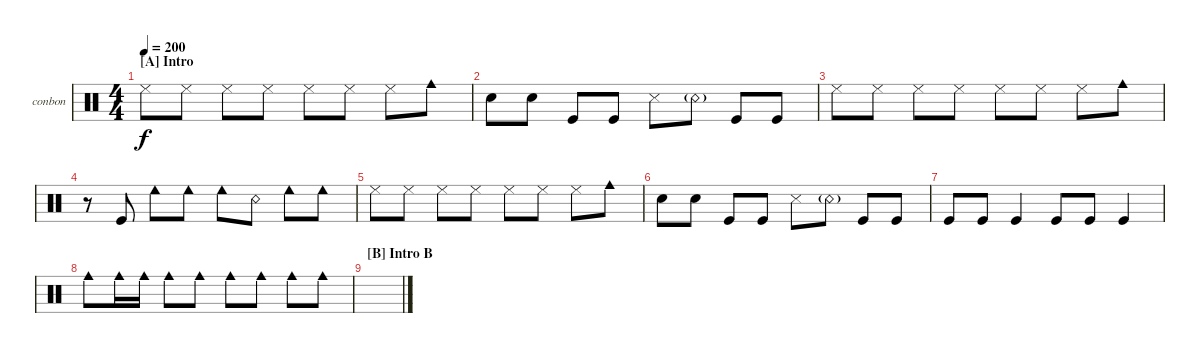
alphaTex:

\defaultSystemsLayout 4
\bracketExtendMode groupsimilarinstruments
\firstSystemTrackNameOrientation horizontal
\otherSystemsTrackNameOrientation horizontal
\track ("Bongos N Congas" "conbon") {instrument percussion}
\staff {score}
\articulation defaults
\ts (4 4)
\section ("A" "Intro")
\tempo 200
\clef neutral
\scale
0.472222
\ks c "Cowbell low (tip)".8{dy f} "Cowbell low (tip)".8 "Cowbell low (tip)".8 "Cowbell low (tip)".8 "Cowbell low (tip)".8 "Cowbell low (tip)".8 "Cowbell low (tip)".8 "Cowbell medium (hit)".8
|
\scale
0.263889 "Snare (hit) 2".8 "Snare (hit) 2".8 "Kick (hit)".8 "Kick (hit)".8 "Snare (side stick) 3".8 "Snare (rim shot)"{g}.8 "Kick (hit)".8 "Kick (hit)".8 |
\scale
0.263889 "Cowbell low (tip)".8 "Cowbell low (tip)".8 "Cowbell low (tip)".8 "Cowbell low (tip)".8 "Cowbell low (tip)".8 "Cowbell low (tip)".8 "Cowbell low (tip)".8 "Cowbell medium (hit)".8 |
\scale
0.333333 r.8 "Kick (hit)".8 "Cowbell low (hit)".8 "Cowbell low (hit)".8 "Cowbell low (hit)".8 "Snare (rim shot)".8 "Cowbell low (hit)".8 "Cowbell low (hit)".8 |
\scale
0.333333 "Cowbell low (tip)".8 "Cowbell low (tip)".8 "Cowbell low (tip)".8 "Cowbell low (tip)".8 "Cowbell low (tip)".8 "Cowbell low (tip)".8 "Cowbell low (tip)".8 "Cowbell medium (hit)".8 |
\scale
0.333333 "Snare (hit) 2".8 "Snare (hit) 2".8 "Kick (hit)".8 "Kick (hit)".8 "Snare (side stick) 3".8 "Snare (rim shot)"{g}.8 "Kick (hit)".8 "Kick (hit)".8 |
\scale
0.333333 "Kick (hit)".8 "Kick (hit)".8 "Kick (hit)".4 "Kick (hit)".8 "Kick (hit)".8 "Kick (hit)".4 |
\scale
0.333333 "Cowbell medium (hit)".8 "Cowbell medium (hit)".16 "Cowbell medium (hit)".16 "Cowbell medium (hit)".8 "Cowbell medium (hit)".8 "Cowbell medium (hit)".8 "Cowbell medium (hit)".8 "Cowbell medium (hit)".8 "Cowbell medium (hit)".8 |
\section ("B" "Intro B")
\scale
0.333333 |
\scale
0.333333 |
\scale
0.333333 |
\scale
0.333333 |
\scale
0.333333 |
\scale
0.333333 |
\scale
0.333333 |
\scale
0.333333
